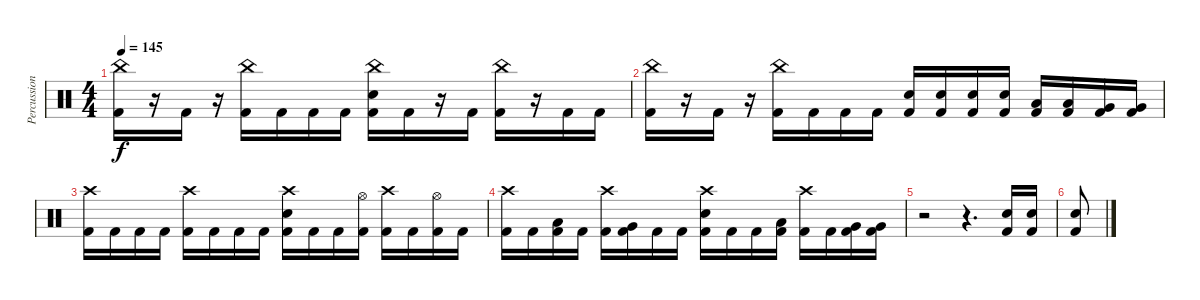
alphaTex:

\track ("Percussion" "Percussion") {instrument percussion}
\staff {score}
\articulation defaults
\ts (4 4)
\tempo 145
\clef neutral
\ks c
("China (hit)" "Kick (hit) 2").16{dy f} r.16 "Kick (hit) 2".16 r.16 ("China (hit)" "Kick (hit) 2").16 "Kick (hit) 2".16 "Kick (hit) 2".16 "Kick (hit) 2".16 ("China (hit)" "Electric Snare (hit)" "Kick (hit) 2").16 "Kick (hit) 2".16 r.16 "Kick (hit) 2".16 ("China (hit)" "Kick (hit) 2").16 r.16 "Kick (hit) 2".16 "Kick (hit) 2".16 |
("China (hit)" "Kick (hit) 2").16 r.16 "Kick (hit) 2".16 r.16 ("China (hit)" "Kick (hit) 2").16 "Kick (hit) 2".16 "Kick (hit) 2".16 "Kick (hit) 2".16 ("Electric Snare (hit)" "Kick (hit) 2").16 ("Electric Snare (hit)" "Kick (hit) 2").16 ("Electric Snare (hit)" "Kick (hit) 2").16 ("Electric Snare (hit)" "Kick (hit) 2").16 ("Low Tom (hit)" "Kick (hit) 2").16 ("Low Tom (hit)" "Kick (hit) 2").16 ("Very Low Tom (hit)" "Kick (hit) 2").16 ("Very Low Tom (hit)" "Kick (hit) 2").16 |
("Crash high (hit)" "Kick (hit) 2").16 "Kick (hit) 2".16 "Kick (hit) 2".16 "Kick (hit) 2".16 ("Crash high (hit)" "Kick (hit) 2").16 "Kick (hit) 2".16 "Kick (hit) 2".16 "Kick (hit) 2".16 ("Crash high (hit)" "Electric Snare (hit)" "Kick (hit) 2").16 "Kick (hit) 2".16 "Kick (hit) 2".16 ("Hi-Hat (open)" "Kick (hit) 2").16 ("Crash high (hit)" "Kick (hit) 2").16 "Kick (hit) 2".16 ("Hi-Hat (open)" "Kick (hit) 2").16 "Kick (hit) 2".16 |
("Crash high (hit)" "Kick (hit) 2").16 "Kick (hit) 2".16 ("Low Tom (hit)" "Kick (hit) 2").16 "Kick (hit) 2".16 ("Crash high (hit)" "Kick (hit) 2").16 ("Very Low Tom (hit)" "Kick (hit) 2").16 "Kick (hit) 2".16 "Kick (hit) 2".16 ("Crash high (hit)" "Electric Snare (hit)" "Kick (hit) 2").16 "Kick (hit) 2".16 "Kick (hit) 2".16 ("Low Floor Tom (hit)" "Kick (hit) 2").16 ("Crash high (hit)" "Kick (hit) 2").16 "Kick (hit) 2".16 ("Very Low Tom (hit)" "Kick (hit) 2").16 ("Very Low Tom (hit)" "Kick (hit) 2").16 |
r.2 r.4{d} ("Electric Snare (hit)" "Kick (hit) 2").16 ("Electric Snare (hit)" "Kick (hit) 2").16 |
("Electric Snare (hit)" "Kick (hit) 2").8
